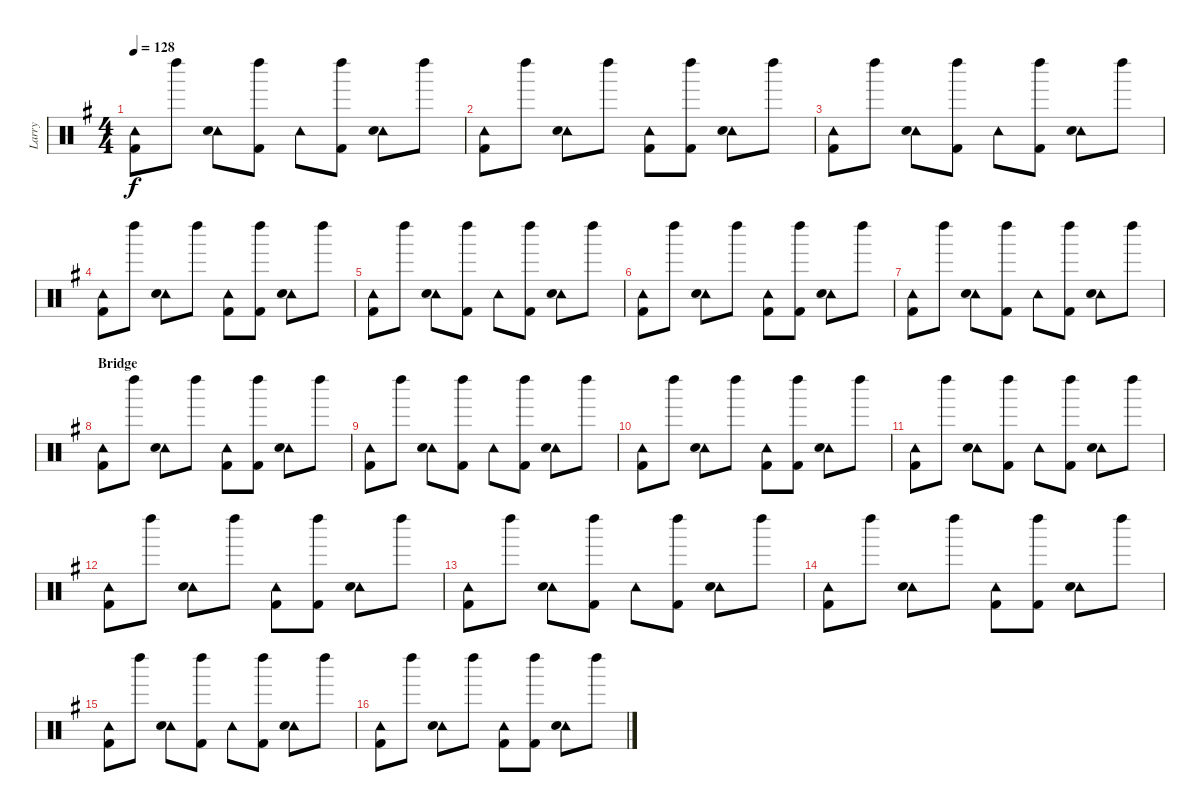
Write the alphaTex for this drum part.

\track ("Larry" "Larry") {instrument percussion}
\staff {score}
\articulation defaults
\ts (4 4)
\tempo 128
\clef neutral
\ks g
("Tambourine (hit)" "Kick (hit) 2").8{dy f} "Left Maraca (hit)".8 ("Tambourine (hit)" "Snare (hit) 2").8 ("Left Maraca (hit)" "Kick (hit) 2").8 "Tambourine (hit)".8 ("Left Maraca (hit)" "Kick (hit) 2").8 ("Tambourine (hit)" "Snare (hit) 2").8 "Left Maraca (hit)".8 |
("Tambourine (hit)" "Kick (hit) 2").8 "Left Maraca (hit)".8 ("Tambourine (hit)" "Snare (hit) 2").8 "Left Maraca (hit)".8 ("Tambourine (hit)" "Kick (hit) 2").8 ("Left Maraca (hit)" "Kick (hit) 2").8 ("Tambourine (hit)" "Snare (hit) 2").8 "Left Maraca (hit)".8 |
("Tambourine (hit)" "Kick (hit) 2").8 "Left Maraca (hit)".8 ("Tambourine (hit)" "Snare (hit) 2").8 ("Left Maraca (hit)" "Kick (hit) 2").8 "Tambourine (hit)".8 ("Left Maraca (hit)" "Kick (hit) 2").8 ("Tambourine (hit)" "Snare (hit) 2").8 "Left Maraca (hit)".8 |
("Tambourine (hit)" "Kick (hit) 2").8 "Left Maraca (hit)".8 ("Tambourine (hit)" "Snare (hit) 2").8 "Left Maraca (hit)".8 ("Tambourine (hit)" "Kick (hit) 2").8 ("Left Maraca (hit)" "Kick (hit) 2").8 ("Tambourine (hit)" "Snare (hit) 2").8 "Left Maraca (hit)".8 |
("Tambourine (hit)" "Kick (hit) 2").8 "Left Maraca (hit)".8 ("Tambourine (hit)" "Snare (hit) 2").8 ("Left Maraca (hit)" "Kick (hit) 2").8 "Tambourine (hit)".8 ("Left Maraca (hit)" "Kick (hit) 2").8 ("Tambourine (hit)" "Snare (hit) 2").8 "Left Maraca (hit)".8 |
("Tambourine (hit)" "Kick (hit) 2").8 "Left Maraca (hit)".8 ("Tambourine (hit)" "Snare (hit) 2").8 "Left Maraca (hit)".8 ("Tambourine (hit)" "Kick (hit) 2").8 ("Left Maraca (hit)" "Kick (hit) 2").8 ("Tambourine (hit)" "Snare (hit) 2").8 "Left Maraca (hit)".8 |
("Tambourine (hit)" "Kick (hit) 2").8 "Left Maraca (hit)".8 ("Tambourine (hit)" "Snare (hit) 2").8 ("Left Maraca (hit)" "Kick (hit) 2").8 "Tambourine (hit)".8 ("Left Maraca (hit)" "Kick (hit) 2").8 ("Tambourine (hit)" "Snare (hit) 2").8 "Left Maraca (hit)".8 |
\section ("" "Bridge")
("Tambourine (hit)" "Kick (hit) 2").8 "Left Maraca (hit)".8 ("Tambourine (hit)" "Snare (hit) 2").8 "Left Maraca (hit)".8 ("Tambourine (hit)" "Kick (hit) 2").8 ("Left Maraca (hit)" "Kick (hit) 2").8 ("Tambourine (hit)" "Snare (hit) 2").8 "Left Maraca (hit)".8 |
("Tambourine (hit)" "Kick (hit) 2").8 "Left Maraca (hit)".8 ("Tambourine (hit)" "Snare (hit) 2").8 ("Left Maraca (hit)" "Kick (hit) 2").8 "Tambourine (hit)".8 ("Left Maraca (hit)" "Kick (hit) 2").8 ("Tambourine (hit)" "Snare (hit) 2").8 "Left Maraca (hit)".8 |
("Tambourine (hit)" "Kick (hit) 2").8 "Left Maraca (hit)".8 ("Tambourine (hit)" "Snare (hit) 2").8 "Left Maraca (hit)".8 ("Tambourine (hit)" "Kick (hit) 2").8 ("Left Maraca (hit)" "Kick (hit) 2").8 ("Tambourine (hit)" "Snare (hit) 2").8 "Left Maraca (hit)".8 |
("Tambourine (hit)" "Kick (hit) 2").8 "Left Maraca (hit)".8 ("Tambourine (hit)" "Snare (hit) 2").8 ("Left Maraca (hit)" "Kick (hit) 2").8 "Tambourine (hit)".8 ("Left Maraca (hit)" "Kick (hit) 2").8 ("Tambourine (hit)" "Snare (hit) 2").8 "Left Maraca (hit)".8 |
("Tambourine (hit)" "Kick (hit) 2").8 "Left Maraca (hit)".8 ("Tambourine (hit)" "Snare (hit) 2").8 "Left Maraca (hit)".8 ("Tambourine (hit)" "Kick (hit) 2").8 ("Left Maraca (hit)" "Kick (hit) 2").8 ("Tambourine (hit)" "Snare (hit) 2").8 "Left Maraca (hit)".8 |
("Tambourine (hit)" "Kick (hit) 2").8 "Left Maraca (hit)".8 ("Tambourine (hit)" "Snare (hit) 2").8 ("Left Maraca (hit)" "Kick (hit) 2").8 "Tambourine (hit)".8 ("Left Maraca (hit)" "Kick (hit) 2").8 ("Tambourine (hit)" "Snare (hit) 2").8 "Left Maraca (hit)".8 |
("Tambourine (hit)" "Kick (hit) 2").8 "Left Maraca (hit)".8 ("Tambourine (hit)" "Snare (hit) 2").8 "Left Maraca (hit)".8 ("Tambourine (hit)" "Kick (hit) 2").8 ("Left Maraca (hit)" "Kick (hit) 2").8 ("Tambourine (hit)" "Snare (hit) 2").8 "Left Maraca (hit)".8 |
("Tambourine (hit)" "Kick (hit) 2").8 "Left Maraca (hit)".8 ("Tambourine (hit)" "Snare (hit) 2").8 ("Left Maraca (hit)" "Kick (hit) 2").8 "Tambourine (hit)".8 ("Left Maraca (hit)" "Kick (hit) 2").8 ("Tambourine (hit)" "Snare (hit) 2").8 "Left Maraca (hit)".8 |
("Tambourine (hit)" "Kick (hit) 2").8 "Left Maraca (hit)".8 ("Tambourine (hit)" "Snare (hit) 2").8 "Left Maraca (hit)".8 ("Tambourine (hit)" "Kick (hit) 2").8 ("Left Maraca (hit)" "Kick (hit) 2").8 ("Tambourine (hit)" "Snare (hit) 2").8 "Left Maraca (hit)".8
